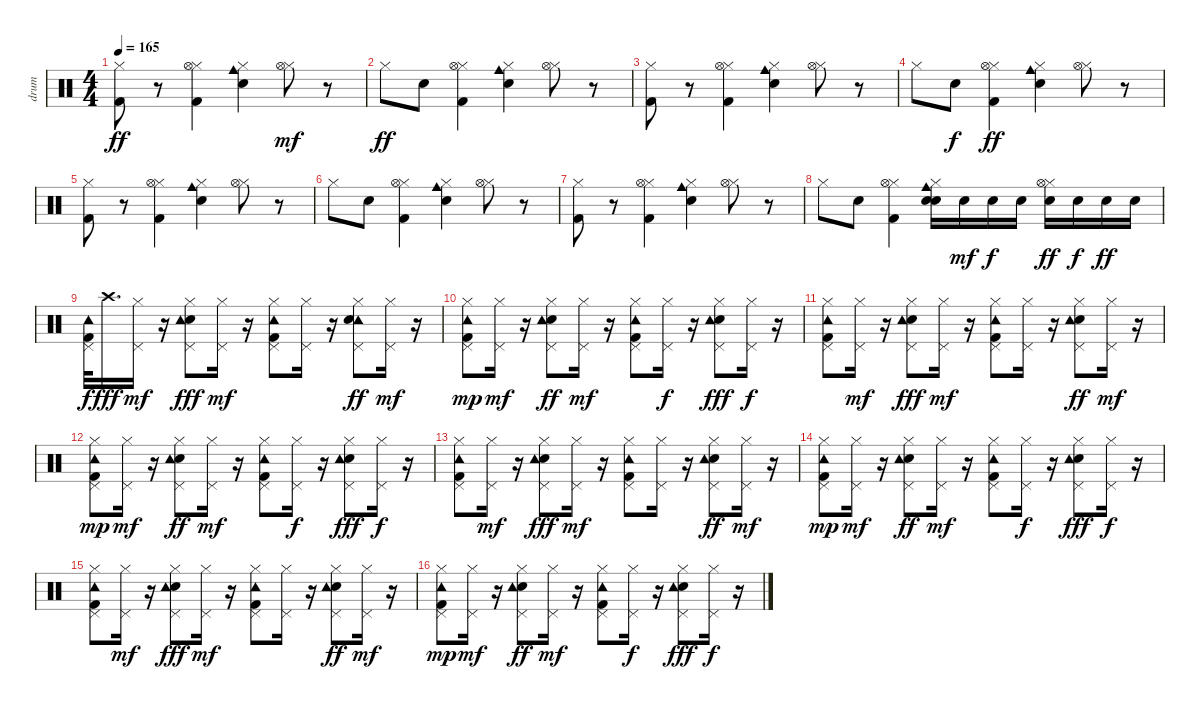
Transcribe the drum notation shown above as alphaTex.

\track ("drum" "drum") {instrument percussion}
\staff {score}
\articulation defaults
\ts (4 4)
\tempo 165
\clef neutral
\ks c
("Kick (hit) 2" "Hi-Hat (closed)").8{dy ff} r.8 ("Kick (hit) 2" "Hi-Hat (closed)" "Hi-Hat (open)").4 ("Electric Snare (hit)" "Hi-Hat (closed)" "Cowbell medium (hit)").4 ("Hi-Hat (closed)" "Hi-Hat (open)").8{dy mf} r.8 |
"Hi-Hat (closed)".8{dy ff} "Electric Snare (hit)".8 ("Kick (hit) 2" "Hi-Hat (closed)" "Hi-Hat (open)").4 ("Electric Snare (hit)" "Hi-Hat (closed)" "Cowbell medium (hit)").4 ("Hi-Hat (closed)" "Hi-Hat (open)").8 r.8 |
("Kick (hit) 2" "Hi-Hat (closed)").8 r.8 ("Kick (hit) 2" "Hi-Hat (closed)" "Hi-Hat (open)").4 ("Electric Snare (hit)" "Hi-Hat (closed)" "Cowbell medium (hit)").4 ("Hi-Hat (closed)" "Hi-Hat (open)").8 r.8 |
"Hi-Hat (closed)".8 "Electric Snare (hit)".8{dy f} ("Kick (hit) 2" "Hi-Hat (closed)" "Hi-Hat (open)").4{dy ff} ("Electric Snare (hit)" "Hi-Hat (closed)" "Cowbell medium (hit)").4 ("Hi-Hat (closed)" "Hi-Hat (open)").8 r.8 |
("Kick (hit) 2" "Hi-Hat (closed)").8 r.8 ("Kick (hit) 2" "Hi-Hat (closed)" "Hi-Hat (open)").4 ("Electric Snare (hit)" "Hi-Hat (closed)" "Cowbell medium (hit)").4 ("Hi-Hat (closed)" "Hi-Hat (open)").8 r.8 |
"Hi-Hat (closed)".8 "Electric Snare (hit)".8 ("Kick (hit) 2" "Hi-Hat (closed)" "Hi-Hat (open)").4 ("Electric Snare (hit)" "Hi-Hat (closed)" "Cowbell medium (hit)").4 ("Hi-Hat (closed)" "Hi-Hat (open)").8 r.8 |
("Kick (hit) 2" "Hi-Hat (closed)").8 r.8 ("Kick (hit) 2" "Hi-Hat (closed)" "Hi-Hat (open)").4 ("Electric Snare (hit)" "Hi-Hat (closed)" "Cowbell medium (hit)").4 ("Hi-Hat (closed)" "Hi-Hat (open)").8 r.8 |
"Hi-Hat (closed)".8 "Electric Snare (hit)".8 ("Kick (hit) 2" "Hi-Hat (closed)" "Hi-Hat (open)").4 ("Electric Snare (hit)" "Hi-Hat (closed)" "Cowbell medium (hit)" "Electric Snare (hit)").16 "Electric Snare (hit)".16{dy mf} "Electric Snare (hit)".16{dy f} "Electric Snare (hit)".16 ("Hi-Hat (closed)" "Hi-Hat (open)" "Electric Snare (hit)").16{dy ff} "Electric Snare (hit)".16{dy f} "Electric Snare (hit)".16{dy ff} "Electric Snare (hit)".16 |
("Pedal Hi-Hat (hit)" "Kick (hit) 2" "Tambourine (hit)").32{dy f} "Crash high (hit)".16{d dy fff} ("Hi-Hat (closed)" "Pedal Hi-Hat (hit)").16{dy mf} r.16 ("Hi-Hat (closed)" "Pedal Hi-Hat (hit)" "Electric Snare (hit)" "Tambourine (hit)").8{dy fff} ("Hi-Hat (closed)" "Pedal Hi-Hat (hit)").16{dy mf} r.16 ("Hi-Hat (closed)" "Pedal Hi-Hat (hit)" "Kick (hit) 2" "Tambourine (hit)").8 ("Hi-Hat (closed)" "Pedal Hi-Hat (hit)").16 r.16 ("Hi-Hat (closed)" "Tambourine (hit)" "Pedal Hi-Hat (hit)" "Electric Snare (hit)").8{dy ff} ("Hi-Hat (closed)" "Pedal Hi-Hat (hit)").16{dy mf} r.16 |
("Hi-Hat (closed)" "Tambourine (hit)" "Pedal Hi-Hat (hit)" "Kick (hit) 2").8{dy mp} ("Hi-Hat (closed)" "Pedal Hi-Hat (hit)").16{dy mf} r.16 ("Hi-Hat (closed)" "Pedal Hi-Hat (hit)" "Electric Snare (hit)" "Tambourine (hit)").8{dy ff} ("Hi-Hat (closed)" "Pedal Hi-Hat (hit)").16{dy mf} r.16 ("Hi-Hat (closed)" "Pedal Hi-Hat (hit)" "Kick (hit) 2" "Tambourine (hit)").8 ("Hi-Hat (closed)" "Pedal Hi-Hat (hit)").16{dy f} r.16 ("Hi-Hat (closed)" "Pedal Hi-Hat (hit)" "Electric Snare (hit)" "Tambourine (hit)").8{dy fff} ("Hi-Hat (closed)" "Pedal Hi-Hat (hit)").16{dy f} r.16 |
("Hi-Hat (closed)" "Pedal Hi-Hat (hit)" "Kick (hit) 2" "Tambourine (hit)").8 ("Hi-Hat (closed)" "Pedal Hi-Hat (hit)").16{dy mf} r.16 ("Hi-Hat (closed)" "Pedal Hi-Hat (hit)" "Electric Snare (hit)" "Tambourine (hit)").8{dy fff} ("Hi-Hat (closed)" "Pedal Hi-Hat (hit)").16{dy mf} r.16 ("Hi-Hat (closed)" "Pedal Hi-Hat (hit)" "Kick (hit) 2" "Tambourine (hit)").8 ("Hi-Hat (closed)" "Pedal Hi-Hat (hit)").16 r.16 ("Hi-Hat (closed)" "Pedal Hi-Hat (hit)" "Electric Snare (hit)" "Tambourine (hit)").8{dy ff} ("Hi-Hat (closed)" "Pedal Hi-Hat (hit)").16{dy mf} r.16 |
("Hi-Hat (closed)" "Pedal Hi-Hat (hit)" "Kick (hit) 2" "Tambourine (hit)").8{dy mp} ("Hi-Hat (closed)" "Pedal Hi-Hat (hit)").16{dy mf} r.16 ("Hi-Hat (closed)" "Pedal Hi-Hat (hit)" "Electric Snare (hit)" "Tambourine (hit)").8{dy ff} ("Hi-Hat (closed)" "Pedal Hi-Hat (hit)").16{dy mf} r.16 ("Hi-Hat (closed)" "Pedal Hi-Hat (hit)" "Kick (hit) 2" "Tambourine (hit)").8 ("Hi-Hat (closed)" "Pedal Hi-Hat (hit)").16{dy f} r.16 ("Hi-Hat (closed)" "Pedal Hi-Hat (hit)" "Electric Snare (hit)" "Tambourine (hit)").8{dy fff} ("Hi-Hat (closed)" "Pedal Hi-Hat (hit)").16{dy f} r.16 |
("Hi-Hat (closed)" "Pedal Hi-Hat (hit)" "Kick (hit) 2" "Tambourine (hit)").8 ("Hi-Hat (closed)" "Pedal Hi-Hat (hit)").16{dy mf} r.16 ("Hi-Hat (closed)" "Pedal Hi-Hat (hit)" "Electric Snare (hit)" "Tambourine (hit)").8{dy fff} ("Hi-Hat (closed)" "Pedal Hi-Hat (hit)").16{dy mf} r.16 ("Hi-Hat (closed)" "Pedal Hi-Hat (hit)" "Kick (hit) 2" "Tambourine (hit)").8 ("Hi-Hat (closed)" "Pedal Hi-Hat (hit)").16 r.16 ("Hi-Hat (closed)" "Pedal Hi-Hat (hit)" "Electric Snare (hit)" "Tambourine (hit)").8{dy ff} ("Hi-Hat (closed)" "Pedal Hi-Hat (hit)").16{dy mf} r.16 |
("Hi-Hat (closed)" "Pedal Hi-Hat (hit)" "Kick (hit) 2" "Tambourine (hit)").8{dy mp} ("Hi-Hat (closed)" "Pedal Hi-Hat (hit)").16{dy mf} r.16 ("Hi-Hat (closed)" "Pedal Hi-Hat (hit)" "Electric Snare (hit)" "Tambourine (hit)").8{dy ff} ("Hi-Hat (closed)" "Pedal Hi-Hat (hit)").16{dy mf} r.16 ("Hi-Hat (closed)" "Pedal Hi-Hat (hit)" "Kick (hit) 2" "Tambourine (hit)").8 ("Hi-Hat (closed)" "Pedal Hi-Hat (hit)").16{dy f} r.16 ("Hi-Hat (closed)" "Pedal Hi-Hat (hit)" "Electric Snare (hit)" "Tambourine (hit)").8{dy fff} ("Hi-Hat (closed)" "Pedal Hi-Hat (hit)").16{dy f} r.16 |
("Hi-Hat (closed)" "Pedal Hi-Hat (hit)" "Kick (hit) 2" "Tambourine (hit)").8 ("Hi-Hat (closed)" "Pedal Hi-Hat (hit)").16{dy mf} r.16 ("Hi-Hat (closed)" "Pedal Hi-Hat (hit)" "Electric Snare (hit)" "Tambourine (hit)").8{dy fff} ("Hi-Hat (closed)" "Pedal Hi-Hat (hit)").16{dy mf} r.16 ("Hi-Hat (closed)" "Pedal Hi-Hat (hit)" "Kick (hit) 2" "Tambourine (hit)").8 ("Hi-Hat (closed)" "Pedal Hi-Hat (hit)").16 r.16 ("Hi-Hat (closed)" "Pedal Hi-Hat (hit)" "Electric Snare (hit)" "Tambourine (hit)").8{dy ff} ("Hi-Hat (closed)" "Pedal Hi-Hat (hit)").16{dy mf} r.16 |
("Hi-Hat (closed)" "Pedal Hi-Hat (hit)" "Kick (hit) 2" "Tambourine (hit)").8{dy mp} ("Hi-Hat (closed)" "Pedal Hi-Hat (hit)").16{dy mf} r.16 ("Hi-Hat (closed)" "Pedal Hi-Hat (hit)" "Electric Snare (hit)" "Tambourine (hit)").8{dy ff} ("Hi-Hat (closed)" "Pedal Hi-Hat (hit)").16{dy mf} r.16 ("Hi-Hat (closed)" "Pedal Hi-Hat (hit)" "Kick (hit) 2" "Tambourine (hit)").8 ("Hi-Hat (closed)" "Pedal Hi-Hat (hit)").16{dy f} r.16 ("Hi-Hat (closed)" "Pedal Hi-Hat (hit)" "Electric Snare (hit)" "Tambourine (hit)").8{dy fff} ("Hi-Hat (closed)" "Pedal Hi-Hat (hit)").16{dy f} r.16
